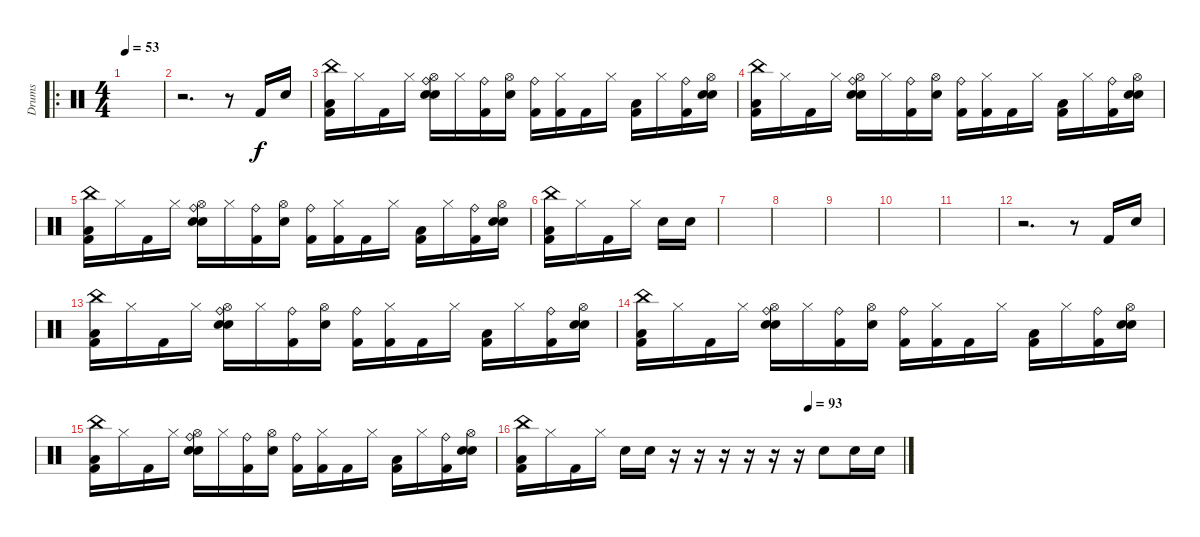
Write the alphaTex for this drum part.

\track ("Drums" "Drums") {instrument percussion}
\staff {score}
\articulation defaults
\ro
\ts (4 4)
\tempo 53
\clef neutral
\ks c
|
r.2{d} r.8 "Kick (hit) 2".16 "Snare (hit) 2".16 |
("China (hit)" "Kick (hit) 2" "Low Floor Tom (hit)").16 "Hi-Hat (closed)".16 "Kick (hit) 2".16 "Hi-Hat (closed)".16 ("Ride (bell)" "Hi-Hat (open)" "Snare (hit) 2" "Electric Snare (hit)").16 "Hi-Hat (closed)".16 ("Ride (bell)" "Kick (hit) 2").16 ("Hi-Hat (open)" "Snare (hit) 2").16 ("Ride (bell)" "Kick (hit) 2").16 ("Hi-Hat (closed)" "Kick (hit) 2").16 "Kick (hit) 2".16 "Hi-Hat (closed)".16 ("Kick (hit) 2" "Low Floor Tom (hit)").16 "Hi-Hat (closed)".16 ("Ride (bell)" "Kick (hit) 2").16 ("Hi-Hat (open)" "Snare (hit) 2" "Electric Snare (hit)").16 |
("China (hit)" "Kick (hit) 2" "Low Floor Tom (hit)").16 "Hi-Hat (closed)".16 "Kick (hit) 2".16 "Hi-Hat (closed)".16 ("Ride (bell)" "Hi-Hat (open)" "Snare (hit) 2" "Electric Snare (hit)").16 "Hi-Hat (closed)".16 ("Ride (bell)" "Kick (hit) 2").16 ("Hi-Hat (open)" "Snare (hit) 2").16 ("Ride (bell)" "Kick (hit) 2").16 ("Hi-Hat (closed)" "Kick (hit) 2").16 "Kick (hit) 2".16 "Hi-Hat (closed)".16 ("Kick (hit) 2" "Low Floor Tom (hit)").16 "Hi-Hat (closed)".16 ("Ride (bell)" "Kick (hit) 2").16 ("Hi-Hat (open)" "Snare (hit) 2" "Electric Snare (hit)").16 |
("China (hit)" "Kick (hit) 2" "Low Floor Tom (hit)").16 "Hi-Hat (closed)".16 "Kick (hit) 2".16 "Hi-Hat (closed)".16 ("Ride (bell)" "Hi-Hat (open)" "Snare (hit) 2" "Electric Snare (hit)").16 "Hi-Hat (closed)".16 ("Ride (bell)" "Kick (hit) 2").16 ("Hi-Hat (open)" "Snare (hit) 2").16 ("Ride (bell)" "Kick (hit) 2").16 ("Hi-Hat (closed)" "Kick (hit) 2").16 "Kick (hit) 2".16 "Hi-Hat (closed)".16 ("Kick (hit) 2" "Low Floor Tom (hit)").16 "Hi-Hat (closed)".16 ("Ride (bell)" "Kick (hit) 2").16 ("Hi-Hat (open)" "Snare (hit) 2" "Electric Snare (hit)").16 |
("China (hit)" "Kick (hit) 2" "Low Floor Tom (hit)").16 "Hi-Hat (closed)".16 "Kick (hit) 2".16 "Hi-Hat (closed)".16 "Snare (hit) 2".16 "Snare (hit) 2".16 |
|
|
|
|
|
r.2{d} r.8 "Kick (hit) 2".16 "Snare (hit) 2".16 |
("China (hit)" "Kick (hit) 2" "Low Floor Tom (hit)").16 "Hi-Hat (closed)".16 "Kick (hit) 2".16 "Hi-Hat (closed)".16 ("Ride (bell)" "Hi-Hat (open)" "Snare (hit) 2" "Electric Snare (hit)").16 "Hi-Hat (closed)".16 ("Ride (bell)" "Kick (hit) 2").16 ("Hi-Hat (open)" "Snare (hit) 2").16 ("Ride (bell)" "Kick (hit) 2").16 ("Hi-Hat (closed)" "Kick (hit) 2").16 "Kick (hit) 2".16 "Hi-Hat (closed)".16 ("Kick (hit) 2" "Low Floor Tom (hit)").16 "Hi-Hat (closed)".16 ("Ride (bell)" "Kick (hit) 2").16 ("Hi-Hat (open)" "Snare (hit) 2" "Electric Snare (hit)").16 |
("China (hit)" "Kick (hit) 2" "Low Floor Tom (hit)").16 "Hi-Hat (closed)".16 "Kick (hit) 2".16 "Hi-Hat (closed)".16 ("Ride (bell)" "Hi-Hat (open)" "Snare (hit) 2" "Electric Snare (hit)").16 "Hi-Hat (closed)".16 ("Ride (bell)" "Kick (hit) 2").16 ("Hi-Hat (open)" "Snare (hit) 2").16 ("Ride (bell)" "Kick (hit) 2").16 ("Hi-Hat (closed)" "Kick (hit) 2").16 "Kick (hit) 2".16 "Hi-Hat (closed)".16 ("Kick (hit) 2" "Low Floor Tom (hit)").16 "Hi-Hat (closed)".16 ("Ride (bell)" "Kick (hit) 2").16 ("Hi-Hat (open)" "Snare (hit) 2" "Electric Snare (hit)").16 |
("China (hit)" "Kick (hit) 2" "Low Floor Tom (hit)").16 "Hi-Hat (closed)".16 "Kick (hit) 2".16 "Hi-Hat (closed)".16 ("Ride (bell)" "Hi-Hat (open)" "Snare (hit) 2" "Electric Snare (hit)").16 "Hi-Hat (closed)".16 ("Ride (bell)" "Kick (hit) 2").16 ("Hi-Hat (open)" "Snare (hit) 2").16 ("Ride (bell)" "Kick (hit) 2").16 ("Hi-Hat (closed)" "Kick (hit) 2").16 "Kick (hit) 2".16 "Hi-Hat (closed)".16 ("Kick (hit) 2" "Low Floor Tom (hit)").16 "Hi-Hat (closed)".16 ("Ride (bell)" "Kick (hit) 2").16 ("Hi-Hat (open)" "Snare (hit) 2" "Electric Snare (hit)").16 |
\tempo (93 0.75)
("China (hit)" "Kick (hit) 2" "Low Floor Tom (hit)").16 "Hi-Hat (closed)".16 "Kick (hit) 2".16 "Hi-Hat (closed)".16 "Snare (hit) 2".16 "Snare (hit) 2".16 r.16 r.16 r.16 r.16 r.16 r.16 "Electric Snare (hit)".8 "Electric Snare (hit)".16 "Electric Snare (hit)".16
